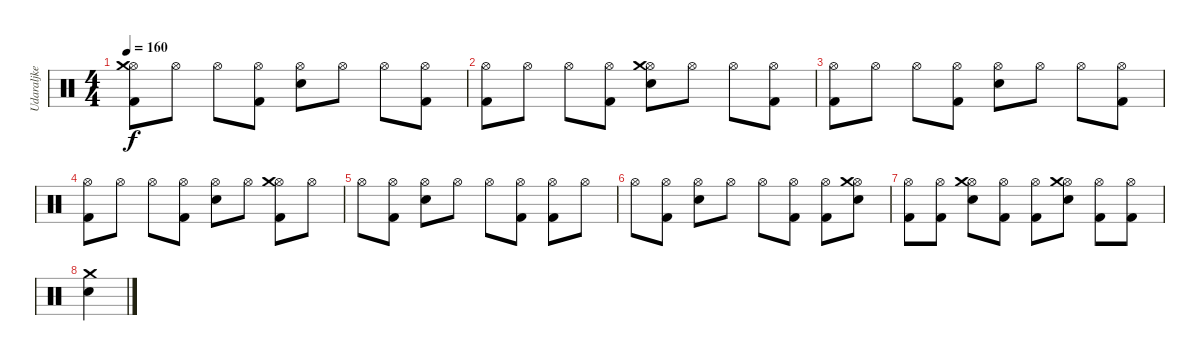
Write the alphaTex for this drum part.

\track ("Udaraljke" "Udaraljke") {instrument percussion}
\staff {score}
\articulation defaults
\ts (4 4)
\tempo 160
\clef neutral
\ks c
("Hi-Hat (open)" "Crash medium (hit)" "Kick (hit) 2").8{dy f} "Hi-Hat (open)".8 "Hi-Hat (open)".8 ("Hi-Hat (open)" "Kick (hit) 2").8 ("Hi-Hat (open)" "Snare (hit) 2").8 "Hi-Hat (open)".8 "Hi-Hat (open)".8 ("Hi-Hat (open)" "Kick (hit) 2").8 |
("Hi-Hat (open)" "Kick (hit) 2").8 "Hi-Hat (open)".8 "Hi-Hat (open)".8 ("Hi-Hat (open)" "Kick (hit) 2").8 ("Hi-Hat (open)" "Crash medium (hit)" "Snare (hit) 2").8 "Hi-Hat (open)".8 "Hi-Hat (open)".8 ("Hi-Hat (open)" "Kick (hit) 2").8 |
("Hi-Hat (open)" "Kick (hit) 2").8 "Hi-Hat (open)".8 "Hi-Hat (open)".8 ("Hi-Hat (open)" "Kick (hit) 2").8 ("Hi-Hat (open)" "Snare (hit) 2").8 "Hi-Hat (open)".8 "Hi-Hat (open)".8 ("Hi-Hat (open)" "Kick (hit) 2").8 |
("Hi-Hat (open)" "Kick (hit) 2").8 "Hi-Hat (open)".8 "Hi-Hat (open)".8 ("Hi-Hat (open)" "Kick (hit) 2").8 ("Hi-Hat (open)" "Snare (hit) 2").8 "Hi-Hat (open)".8 ("Hi-Hat (open)" "Crash medium (hit)" "Kick (hit) 2").8 "Hi-Hat (open)".8 |
"Hi-Hat (open)".8 ("Hi-Hat (open)" "Kick (hit) 2").8 ("Hi-Hat (open)" "Snare (hit) 2").8 "Hi-Hat (open)".8 "Hi-Hat (open)".8 ("Hi-Hat (open)" "Kick (hit) 2").8 ("Hi-Hat (open)" "Kick (hit) 2").8 "Hi-Hat (open)".8 |
"Hi-Hat (open)".8 ("Hi-Hat (open)" "Kick (hit) 2").8 ("Hi-Hat (open)" "Snare (hit) 2").8 "Hi-Hat (open)".8 "Hi-Hat (open)".8 ("Hi-Hat (open)" "Kick (hit) 2").8 ("Hi-Hat (open)" "Kick (hit) 2").8 ("Hi-Hat (open)" "Crash medium (hit)" "Snare (hit) 2").8 |
("Hi-Hat (open)" "Kick (hit) 2").8 ("Hi-Hat (open)" "Kick (hit) 2").8 ("Hi-Hat (open)" "Crash medium (hit)" "Snare (hit) 2").8 ("Hi-Hat (open)" "Kick (hit) 2").8 ("Hi-Hat (open)" "Kick (hit) 2").8 ("Hi-Hat (open)" "Crash medium (hit)" "Snare (hit) 2").8 ("Hi-Hat (open)" "Kick (hit) 2").8 ("Hi-Hat (open)" "Kick (hit) 2").8 |
("Crash medium (hit)" "Snare (hit) 2").4
